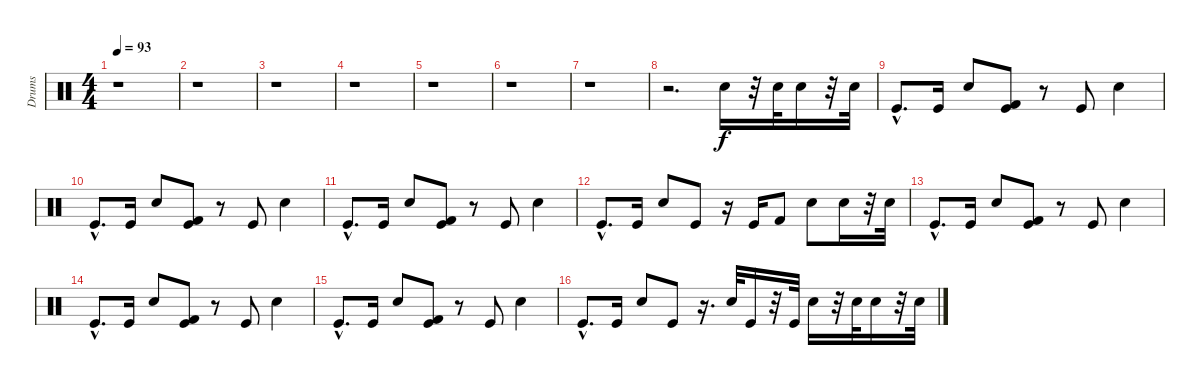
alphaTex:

\track ("Drums" "Drums") {instrument percussion}
\staff {score}
\articulation defaults
\ts (4 4)
\tempo 93
\clef neutral
\ks c
r.1{dy f} |
r.1 |
r.1 |
r.1 |
r.1 |
r.1 |
r.1 |
r.2{d} "Electric Snare (hit)".16 r.32 "Electric Snare (hit)".32 "Electric Snare (hit)".16 r.32 "Electric Snare (hit)".32 |
"Kick (hit)"{hac}.8{d} "Kick (hit)".16 "Electric Snare (hit)".8 ("Kick (hit)" "Kick (hit) 2").8 r.8 "Kick (hit)".8 "Electric Snare (hit)".4 |
"Kick (hit)"{hac}.8{d} "Kick (hit)".16 "Electric Snare (hit)".8 ("Kick (hit)" "Kick (hit) 2").8 r.8 "Kick (hit)".8 "Electric Snare (hit)".4 |
"Kick (hit)"{hac}.8{d} "Kick (hit)".16 "Electric Snare (hit)".8 ("Kick (hit)" "Kick (hit) 2").8 r.8 "Kick (hit)".8 "Electric Snare (hit)".4 |
"Kick (hit)"{hac}.8{d} "Kick (hit)".16 "Electric Snare (hit)".8 "Kick (hit)".8 r.16 "Kick (hit)".16 "Kick (hit) 2".8 "Electric Snare (hit)".8 "Electric Snare (hit)".16 r.32 "Electric Snare (hit)".32 |
"Kick (hit)"{hac}.8{d} "Kick (hit)".16 "Electric Snare (hit)".8 ("Kick (hit)" "Kick (hit) 2").8 r.8 "Kick (hit)".8 "Electric Snare (hit)".4 |
"Kick (hit)"{hac}.8{d} "Kick (hit)".16 "Electric Snare (hit)".8 ("Kick (hit)" "Kick (hit) 2").8 r.8 "Kick (hit)".8 "Electric Snare (hit)".4 |
"Kick (hit)"{hac}.8{d} "Kick (hit)".16 "Electric Snare (hit)".8 ("Kick (hit)" "Kick (hit) 2").8 r.8 "Kick (hit)".8 "Electric Snare (hit)".4 |
"Kick (hit)"{hac}.8{d} "Kick (hit)".16 "Electric Snare (hit)".8 "Kick (hit)".8 r.16{d} "Electric Snare (hit)".32 "Kick (hit)".16 r.32 "Kick (hit)".32 "Electric Snare (hit)".16 r.32 "Electric Snare (hit)".32 "Electric Snare (hit)".16 r.32 "Electric Snare (hit)".32
